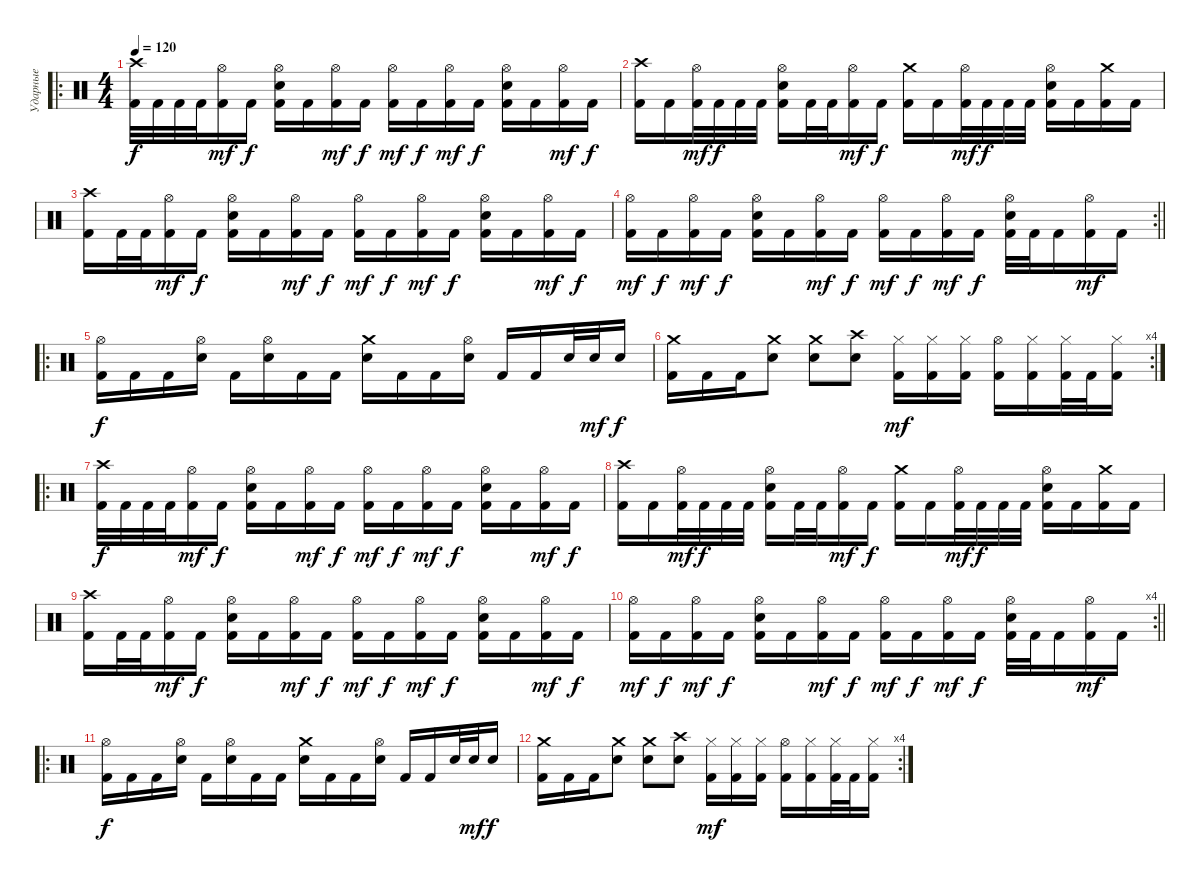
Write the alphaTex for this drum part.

\track ("Ударные" "Ударные") {instrument percussion}
\staff {score}
\articulation defaults
\ro
\ts (4 4)
\tempo 120
\clef neutral
\ks c
("Crash high (hit)" "Kick (hit) 2").32{dy f} "Kick (hit) 2".32 "Kick (hit) 2".32 "Kick (hit) 2".32 ("Hi-Hat (open)" "Kick (hit) 2").16{dy mf} "Kick (hit) 2".16{dy f} ("Hi-Hat (open)" "Electric Snare (hit)" "Kick (hit) 2").16 "Kick (hit) 2".16 ("Hi-Hat (open)" "Kick (hit) 2").16{dy mf} "Kick (hit) 2".16{dy f} ("Hi-Hat (open)" "Kick (hit) 2").16{dy mf} "Kick (hit) 2".16{dy f} ("Hi-Hat (open)" "Kick (hit) 2").16{dy mf} "Kick (hit) 2".16{dy f} ("Hi-Hat (open)" "Electric Snare (hit)" "Kick (hit) 2").16 "Kick (hit) 2".16 ("Hi-Hat (open)" "Kick (hit) 2").16{dy mf} "Kick (hit) 2".16{dy f} |
("Crash high (hit)" "Kick (hit) 2").16 "Kick (hit) 2".16 ("Hi-Hat (open)" "Kick (hit) 2").32{dy mf} "Kick (hit) 2".32{dy f} "Kick (hit) 2".32 "Kick (hit) 2".32 ("Hi-Hat (open)" "Electric Snare (hit)" "Kick (hit) 2").16 "Kick (hit) 2".32 "Kick (hit) 2".32 ("Hi-Hat (open)" "Kick (hit) 2").16{dy mf} "Kick (hit) 2".16{dy f} ("Crash medium (hit)" "Kick (hit) 2").16 "Kick (hit) 2".16 ("Hi-Hat (open)" "Kick (hit) 2").32{dy mf} "Kick (hit) 2".32{dy f} "Kick (hit) 2".32 "Kick (hit) 2".32 ("Hi-Hat (open)" "Electric Snare (hit)" "Kick (hit) 2").16 "Kick (hit) 2".16 ("Crash medium (hit)" "Kick (hit) 2").16 "Kick (hit) 2".16 |
("Crash high (hit)" "Kick (hit) 2").16 "Kick (hit) 2".32 "Kick (hit) 2".32 ("Hi-Hat (open)" "Kick (hit) 2").16{dy mf} "Kick (hit) 2".16{dy f} ("Hi-Hat (open)" "Electric Snare (hit)" "Kick (hit) 2").16 "Kick (hit) 2".16 ("Hi-Hat (open)" "Kick (hit) 2").16{dy mf} "Kick (hit) 2".16{dy f} ("Hi-Hat (open)" "Kick (hit) 2").16{dy mf} "Kick (hit) 2".16{dy f} ("Hi-Hat (open)" "Kick (hit) 2").16{dy mf} "Kick (hit) 2".16{dy f} ("Hi-Hat (open)" "Electric Snare (hit)" "Kick (hit) 2").16 "Kick (hit) 2".16 ("Hi-Hat (open)" "Kick (hit) 2").16{dy mf} "Kick (hit) 2".16{dy f} |
\rc 2
\barLineRight lightlight
("Hi-Hat (open)" "Kick (hit) 2").16{dy mf} "Kick (hit) 2".16{dy f} ("Hi-Hat (open)" "Kick (hit) 2").16{dy mf} "Kick (hit) 2".16{dy f} ("Hi-Hat (open)" "Electric Snare (hit)" "Kick (hit) 2").16 "Kick (hit) 2".16 ("Hi-Hat (open)" "Kick (hit) 2").16{dy mf} "Kick (hit) 2".16{dy f} ("Hi-Hat (open)" "Kick (hit) 2").16{dy mf} "Kick (hit) 2".16{dy f} ("Hi-Hat (open)" "Kick (hit) 2").16{dy mf} "Kick (hit) 2".16{dy f} ("Hi-Hat (open)" "Electric Snare (hit)" "Kick (hit) 2").32 "Kick (hit) 2".32 "Kick (hit) 2".16 ("Hi-Hat (open)" "Kick (hit) 2").16{dy mf} "Kick (hit) 2".16 |
\ro
("Hi-Hat (open)" "Kick (hit) 2").16{dy f} "Kick (hit) 2".16 "Kick (hit) 2".16 ("Hi-Hat (open)" "Electric Snare (hit)").16 "Kick (hit) 2".16 ("Hi-Hat (open)" "Electric Snare (hit)").16 "Kick (hit) 2".16 "Kick (hit) 2".16 ("Crash medium (hit)" "Electric Snare (hit)").16 "Kick (hit) 2".16 "Kick (hit) 2".16 ("Hi-Hat (open)" "Electric Snare (hit)").16 "Kick (hit) 2".16 "Kick (hit) 2".16 "Electric Snare (hit)".32 "Electric Snare (hit)".32{dy mf} "Electric Snare (hit)".16{dy f} |
\rc 4
("Crash medium (hit)" "Kick (hit) 2").16 "Kick (hit) 2".16 "Kick (hit) 2".16 ("Crash medium (hit)" "Electric Snare (hit)").8 ("Crash medium (hit)" "Electric Snare (hit)").8 ("Crash high (hit)" "Electric Snare (hit)").8 ("Hi-Hat (closed)" "Kick (hit) 2").16{dy mf} ("Hi-Hat (closed)" "Kick (hit) 2").16 ("Hi-Hat (closed)" "Kick (hit) 2").16 ("Hi-Hat (open)" "Kick (hit) 2").16 ("Hi-Hat (closed)" "Kick (hit) 2").16 ("Hi-Hat (closed)" "Kick (hit) 2").32 "Kick (hit) 2".32 ("Hi-Hat (closed)" "Kick (hit) 2").16 |
\ro
("Crash high (hit)" "Kick (hit) 2").32{dy f} "Kick (hit) 2".32 "Kick (hit) 2".32 "Kick (hit) 2".32 ("Hi-Hat (open)" "Kick (hit) 2").16{dy mf} "Kick (hit) 2".16{dy f} ("Hi-Hat (open)" "Electric Snare (hit)" "Kick (hit) 2").16 "Kick (hit) 2".16 ("Hi-Hat (open)" "Kick (hit) 2").16{dy mf} "Kick (hit) 2".16{dy f} ("Hi-Hat (open)" "Kick (hit) 2").16{dy mf} "Kick (hit) 2".16{dy f} ("Hi-Hat (open)" "Kick (hit) 2").16{dy mf} "Kick (hit) 2".16{dy f} ("Hi-Hat (open)" "Electric Snare (hit)" "Kick (hit) 2").16 "Kick (hit) 2".16 ("Hi-Hat (open)" "Kick (hit) 2").16{dy mf} "Kick (hit) 2".16{dy f} |
("Crash high (hit)" "Kick (hit) 2").16 "Kick (hit) 2".16 ("Hi-Hat (open)" "Kick (hit) 2").32{dy mf} "Kick (hit) 2".32{dy f} "Kick (hit) 2".32 "Kick (hit) 2".32 ("Hi-Hat (open)" "Electric Snare (hit)" "Kick (hit) 2").16 "Kick (hit) 2".32 "Kick (hit) 2".32 ("Hi-Hat (open)" "Kick (hit) 2").16{dy mf} "Kick (hit) 2".16{dy f} ("Crash medium (hit)" "Kick (hit) 2").16 "Kick (hit) 2".16 ("Hi-Hat (open)" "Kick (hit) 2").32{dy mf} "Kick (hit) 2".32{dy f} "Kick (hit) 2".32 "Kick (hit) 2".32 ("Hi-Hat (open)" "Electric Snare (hit)" "Kick (hit) 2").16 "Kick (hit) 2".16 ("Crash medium (hit)" "Kick (hit) 2").16 "Kick (hit) 2".16 |
("Crash high (hit)" "Kick (hit) 2").16 "Kick (hit) 2".32 "Kick (hit) 2".32 ("Hi-Hat (open)" "Kick (hit) 2").16{dy mf} "Kick (hit) 2".16{dy f} ("Hi-Hat (open)" "Electric Snare (hit)" "Kick (hit) 2").16 "Kick (hit) 2".16 ("Hi-Hat (open)" "Kick (hit) 2").16{dy mf} "Kick (hit) 2".16{dy f} ("Hi-Hat (open)" "Kick (hit) 2").16{dy mf} "Kick (hit) 2".16{dy f} ("Hi-Hat (open)" "Kick (hit) 2").16{dy mf} "Kick (hit) 2".16{dy f} ("Hi-Hat (open)" "Electric Snare (hit)" "Kick (hit) 2").16 "Kick (hit) 2".16 ("Hi-Hat (open)" "Kick (hit) 2").16{dy mf} "Kick (hit) 2".16{dy f} |
\rc 4
\barLineRight lightlight
("Hi-Hat (open)" "Kick (hit) 2").16{dy mf} "Kick (hit) 2".16{dy f} ("Hi-Hat (open)" "Kick (hit) 2").16{dy mf} "Kick (hit) 2".16{dy f} ("Hi-Hat (open)" "Electric Snare (hit)" "Kick (hit) 2").16 "Kick (hit) 2".16 ("Hi-Hat (open)" "Kick (hit) 2").16{dy mf} "Kick (hit) 2".16{dy f} ("Hi-Hat (open)" "Kick (hit) 2").16{dy mf} "Kick (hit) 2".16{dy f} ("Hi-Hat (open)" "Kick (hit) 2").16{dy mf} "Kick (hit) 2".16{dy f} ("Hi-Hat (open)" "Electric Snare (hit)" "Kick (hit) 2").32 "Kick (hit) 2".32 "Kick (hit) 2".16 ("Hi-Hat (open)" "Kick (hit) 2").16{dy mf} "Kick (hit) 2".16 |
\ro
("Hi-Hat (open)" "Kick (hit) 2").16{dy f} "Kick (hit) 2".16 "Kick (hit) 2".16 ("Hi-Hat (open)" "Electric Snare (hit)").16 "Kick (hit) 2".16 ("Hi-Hat (open)" "Electric Snare (hit)").16 "Kick (hit) 2".16 "Kick (hit) 2".16 ("Crash medium (hit)" "Electric Snare (hit)").16 "Kick (hit) 2".16 "Kick (hit) 2".16 ("Hi-Hat (open)" "Electric Snare (hit)").16 "Kick (hit) 2".16 "Kick (hit) 2".16 "Electric Snare (hit)".32 "Electric Snare (hit)".32{dy mf} "Electric Snare (hit)".16{dy f} |
\rc 4
("Crash medium (hit)" "Kick (hit) 2").16 "Kick (hit) 2".16 "Kick (hit) 2".16 ("Crash medium (hit)" "Electric Snare (hit)").8 ("Crash medium (hit)" "Electric Snare (hit)").8 ("Crash high (hit)" "Electric Snare (hit)").8 ("Hi-Hat (closed)" "Kick (hit) 2").16{dy mf} ("Hi-Hat (closed)" "Kick (hit) 2").16 ("Hi-Hat (closed)" "Kick (hit) 2").16 ("Hi-Hat (open)" "Kick (hit) 2").16 ("Hi-Hat (closed)" "Kick (hit) 2").16 ("Hi-Hat (closed)" "Kick (hit) 2").32 "Kick (hit) 2".32 ("Hi-Hat (closed)" "Kick (hit) 2").16
